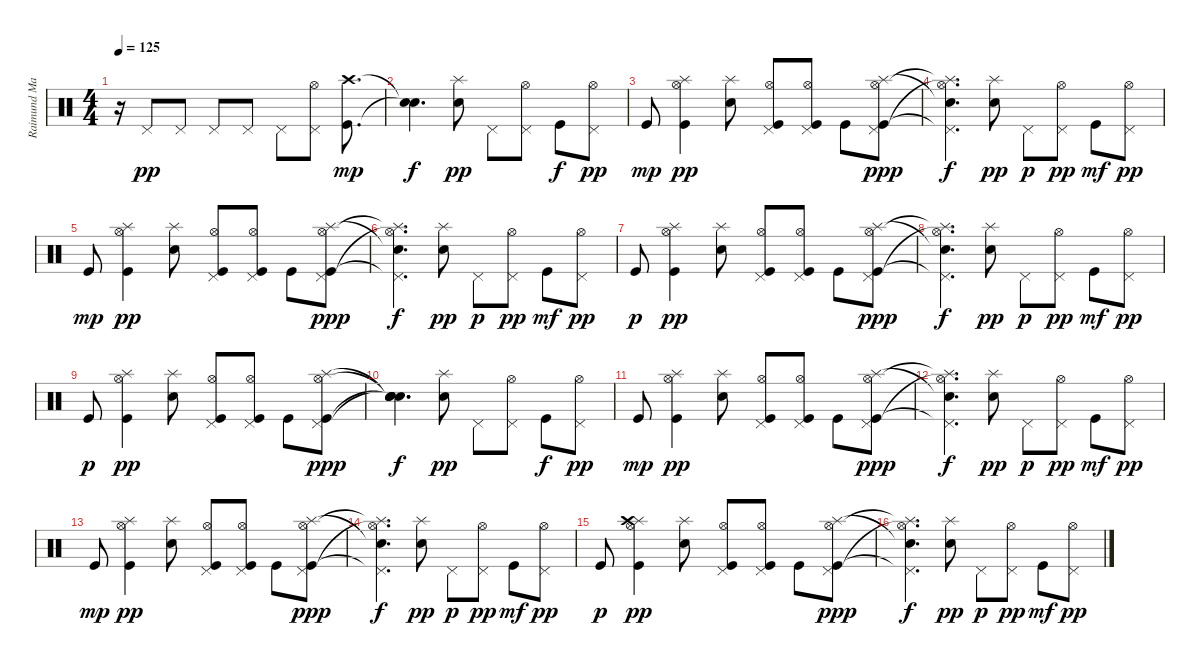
\track ("Raimund Marasigan (Drums)" "Raimund Ma") {instrument percussion}
\staff {score}
\articulation defaults
\ts (4 4)
\tempo 125
\clef neutral
\ks c
r.16{dy ppp} "Pedal Hi-Hat (hit)".8{dy pp} "Pedal Hi-Hat (hit)".8 "Pedal Hi-Hat (hit)".8 "Pedal Hi-Hat (hit)".8 "Pedal Hi-Hat (hit)".8 ("Pedal Hi-Hat (hit)" "Hi-Hat (open)").8 ("Crash high (hit)" "Kick (hit)").8{d dy mp} |
("Snare (hit)"{t} "Snare (hit)"{t}).4{d dy f} ("Electric Snare (hit)" "Splash (hit)").8{dy pp} "Pedal Hi-Hat (hit)".8 ("Pedal Hi-Hat (hit)" "Hi-Hat (open)").8 "Kick (hit)".8{dy f} ("Pedal Hi-Hat (hit)" "Hi-Hat (open)").8{dy pp} |
"Kick (hit)".8{dy mp} ("Kick (hit)" "Splash (hit)" "Hi-Hat (open)").4{dy pp} ("Electric Snare (hit)" "Splash (hit)").8 ("Kick (hit)" "Pedal Hi-Hat (hit)" "Hi-Hat (open)").8 ("Kick (hit)" "Pedal Hi-Hat (hit)" "Hi-Hat (open)").8 "Kick (hit)".8 ("Kick (hit)" "Pedal Hi-Hat (hit)" "Hi-Hat (open)" "Splash (hit)").8{dy ppp} |
("Pedal Hi-Hat (hit)"{t} "Hi-Hat (open)"{t} "Splash (hit)"{t} "Snare (hit)"{t}).4{d dy f} ("Electric Snare (hit)" "Splash (hit)").8{dy pp} "Pedal Hi-Hat (hit)".8{dy p} ("Pedal Hi-Hat (hit)" "Hi-Hat (open)").8{dy pp} "Kick (hit)".8{dy mf} ("Pedal Hi-Hat (hit)" "Hi-Hat (open)").8{dy pp} |
"Kick (hit)".8{dy mp} ("Kick (hit)" "Splash (hit)" "Hi-Hat (open)").4{dy pp} ("Electric Snare (hit)" "Splash (hit)").8 ("Kick (hit)" "Pedal Hi-Hat (hit)" "Hi-Hat (open)").8 ("Kick (hit)" "Pedal Hi-Hat (hit)" "Hi-Hat (open)").8 "Kick (hit)".8 ("Kick (hit)" "Pedal Hi-Hat (hit)" "Hi-Hat (open)" "Splash (hit)").8{dy ppp} |
("Pedal Hi-Hat (hit)"{t} "Hi-Hat (open)"{t} "Splash (hit)"{t} "Snare (hit)"{t}).4{d dy f} ("Electric Snare (hit)" "Splash (hit)").8{dy pp} "Pedal Hi-Hat (hit)".8{dy p} ("Pedal Hi-Hat (hit)" "Hi-Hat (open)").8{dy pp} "Kick (hit)".8{dy mf} ("Pedal Hi-Hat (hit)" "Hi-Hat (open)").8{dy pp} |
"Kick (hit)".8{dy p} ("Kick (hit)" "Splash (hit)" "Hi-Hat (open)").4{dy pp} ("Electric Snare (hit)" "Splash (hit)").8 ("Kick (hit)" "Pedal Hi-Hat (hit)" "Hi-Hat (open)").8 ("Kick (hit)" "Pedal Hi-Hat (hit)" "Hi-Hat (open)").8 "Kick (hit)".8 ("Kick (hit)" "Pedal Hi-Hat (hit)" "Hi-Hat (open)" "Splash (hit)").8{dy ppp} |
("Pedal Hi-Hat (hit)"{t} "Hi-Hat (open)"{t} "Splash (hit)"{t} "Snare (hit)"{t}).4{d dy f} ("Electric Snare (hit)" "Splash (hit)").8{dy pp} "Pedal Hi-Hat (hit)".8{dy p} ("Pedal Hi-Hat (hit)" "Hi-Hat (open)").8{dy pp} "Kick (hit)".8{dy mf} ("Pedal Hi-Hat (hit)" "Hi-Hat (open)").8{dy pp} |
"Kick (hit)".8{dy p} ("Kick (hit)" "Splash (hit)" "Hi-Hat (open)").4{dy pp} ("Electric Snare (hit)" "Splash (hit)").8 ("Kick (hit)" "Pedal Hi-Hat (hit)" "Hi-Hat (open)").8 ("Kick (hit)" "Pedal Hi-Hat (hit)" "Hi-Hat (open)").8 "Kick (hit)".8 ("Kick (hit)" "Pedal Hi-Hat (hit)" "Hi-Hat (open)" "Splash (hit)").8{dy ppp} |
("Snare (hit)"{t} "Snare (hit)"{t} "Snare (hit)"{t} "Snare (hit)"{t}).4{d dy f} ("Electric Snare (hit)" "Splash (hit)").8{dy pp} "Pedal Hi-Hat (hit)".8 ("Pedal Hi-Hat (hit)" "Hi-Hat (open)").8 "Kick (hit)".8{dy f} ("Pedal Hi-Hat (hit)" "Hi-Hat (open)").8{dy pp} |
"Kick (hit)".8{dy mp} ("Kick (hit)" "Splash (hit)" "Hi-Hat (open)").4{dy pp} ("Electric Snare (hit)" "Splash (hit)").8 ("Kick (hit)" "Pedal Hi-Hat (hit)" "Hi-Hat (open)").8 ("Kick (hit)" "Pedal Hi-Hat (hit)" "Hi-Hat (open)").8 "Kick (hit)".8 ("Kick (hit)" "Pedal Hi-Hat (hit)" "Hi-Hat (open)" "Splash (hit)").8{dy ppp} |
("Pedal Hi-Hat (hit)"{t} "Hi-Hat (open)"{t} "Splash (hit)"{t} "Snare (hit)"{t}).4{d dy f} ("Electric Snare (hit)" "Splash (hit)").8{dy pp} "Pedal Hi-Hat (hit)".8{dy p} ("Pedal Hi-Hat (hit)" "Hi-Hat (open)").8{dy pp} "Kick (hit)".8{dy mf} ("Pedal Hi-Hat (hit)" "Hi-Hat (open)").8{dy pp} |
"Kick (hit)".8{dy mp} ("Kick (hit)" "Splash (hit)" "Hi-Hat (open)").4{dy pp} ("Electric Snare (hit)" "Splash (hit)").8 ("Kick (hit)" "Pedal Hi-Hat (hit)" "Hi-Hat (open)").8 ("Kick (hit)" "Pedal Hi-Hat (hit)" "Hi-Hat (open)").8 "Kick (hit)".8 ("Kick (hit)" "Pedal Hi-Hat (hit)" "Hi-Hat (open)" "Splash (hit)").8{dy ppp} |
("Pedal Hi-Hat (hit)"{t} "Hi-Hat (open)"{t} "Splash (hit)"{t} "Snare (hit)"{t}).4{d dy f} ("Electric Snare (hit)" "Splash (hit)").8{dy pp} "Pedal Hi-Hat (hit)".8{dy p} ("Pedal Hi-Hat (hit)" "Hi-Hat (open)").8{dy pp} "Kick (hit)".8{dy mf} ("Pedal Hi-Hat (hit)" "Hi-Hat (open)").8{dy pp} |
"Kick (hit)".8{dy p} ("Kick (hit)" "Splash (hit)" "Hi-Hat (open)" "Crash high (hit)").4{dy pp} ("Electric Snare (hit)" "Splash (hit)").8 ("Kick (hit)" "Pedal Hi-Hat (hit)" "Hi-Hat (open)").8 ("Kick (hit)" "Pedal Hi-Hat (hit)" "Hi-Hat (open)").8 "Kick (hit)".8 ("Kick (hit)" "Pedal Hi-Hat (hit)" "Hi-Hat (open)" "Splash (hit)").8{dy ppp} |
("Pedal Hi-Hat (hit)"{t} "Hi-Hat (open)"{t} "Splash (hit)"{t} "Snare (hit)"{t}).4{d dy f} ("Electric Snare (hit)" "Splash (hit)").8{dy pp} "Pedal Hi-Hat (hit)".8{dy p} ("Pedal Hi-Hat (hit)" "Hi-Hat (open)").8{dy pp} "Kick (hit)".8{dy mf} ("Pedal Hi-Hat (hit)" "Hi-Hat (open)").8{dy pp}
